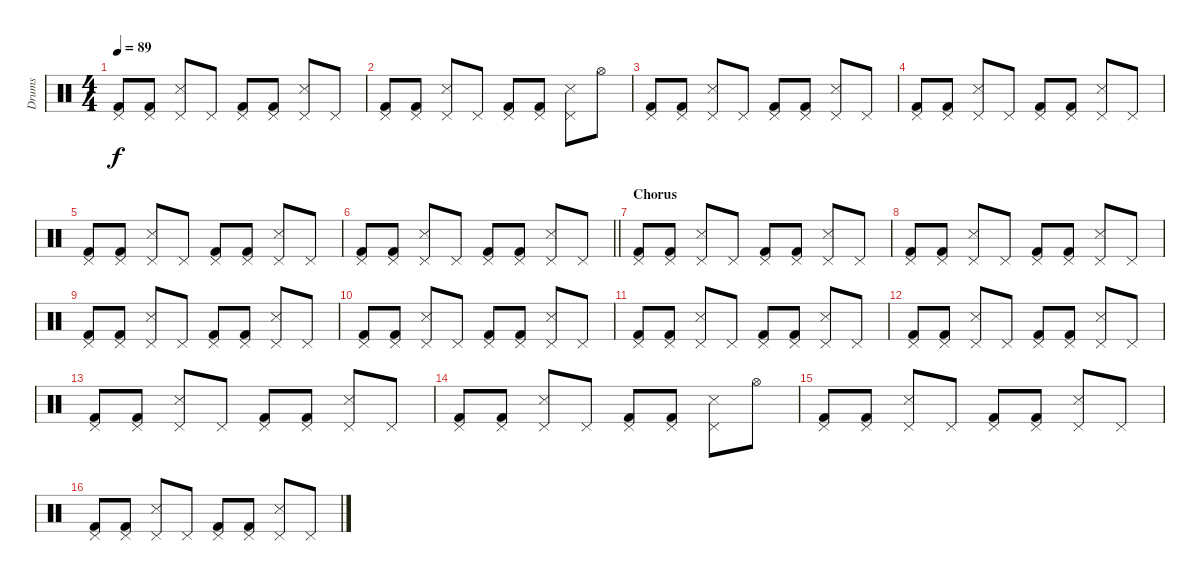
\track ("Drums" "Drums") {instrument percussion}
\staff {score}
\articulation defaults
\ts (4 4)
\tempo 89
\clef neutral
\ks c
("Pedal Hi-Hat (hit)" "Kick (hit) 2").8{dy f} ("Pedal Hi-Hat (hit)" "Kick (hit) 2").8 ("Pedal Hi-Hat (hit)" "Snare (side stick) 3").8 "Pedal Hi-Hat (hit)".8 ("Pedal Hi-Hat (hit)" "Kick (hit) 2").8 ("Pedal Hi-Hat (hit)" "Kick (hit) 2").8 ("Pedal Hi-Hat (hit)" "Snare (side stick) 3").8 "Pedal Hi-Hat (hit)".8 |
("Pedal Hi-Hat (hit)" "Kick (hit) 2").8 ("Pedal Hi-Hat (hit)" "Kick (hit) 2").8 ("Pedal Hi-Hat (hit)" "Snare (side stick) 3").8 "Pedal Hi-Hat (hit)".8 ("Pedal Hi-Hat (hit)" "Kick (hit) 2").8 ("Pedal Hi-Hat (hit)" "Kick (hit) 2").8 ("Pedal Hi-Hat (hit)" "Snare (side stick) 3").8 "Hi-Hat (open)".8 |
("Pedal Hi-Hat (hit)" "Kick (hit) 2").8 ("Pedal Hi-Hat (hit)" "Kick (hit) 2").8 ("Pedal Hi-Hat (hit)" "Snare (side stick) 3").8 "Pedal Hi-Hat (hit)".8 ("Pedal Hi-Hat (hit)" "Kick (hit) 2").8 ("Pedal Hi-Hat (hit)" "Kick (hit) 2").8 ("Pedal Hi-Hat (hit)" "Snare (side stick) 3").8 "Pedal Hi-Hat (hit)".8 |
("Pedal Hi-Hat (hit)" "Kick (hit) 2").8 ("Pedal Hi-Hat (hit)" "Kick (hit) 2").8 ("Pedal Hi-Hat (hit)" "Snare (side stick) 3").8 "Pedal Hi-Hat (hit)".8 ("Pedal Hi-Hat (hit)" "Kick (hit) 2").8 ("Pedal Hi-Hat (hit)" "Kick (hit) 2").8 ("Pedal Hi-Hat (hit)" "Snare (side stick) 3").8 "Pedal Hi-Hat (hit)".8 |
("Pedal Hi-Hat (hit)" "Kick (hit) 2").8 ("Pedal Hi-Hat (hit)" "Kick (hit) 2").8 ("Pedal Hi-Hat (hit)" "Snare (side stick) 3").8 "Pedal Hi-Hat (hit)".8 ("Pedal Hi-Hat (hit)" "Kick (hit) 2").8 ("Pedal Hi-Hat (hit)" "Kick (hit) 2").8 ("Pedal Hi-Hat (hit)" "Snare (side stick) 3").8 "Pedal Hi-Hat (hit)".8 |
\barLineRight lightlight
("Pedal Hi-Hat (hit)" "Kick (hit) 2").8 ("Pedal Hi-Hat (hit)" "Kick (hit) 2").8 ("Pedal Hi-Hat (hit)" "Snare (side stick) 3").8 "Pedal Hi-Hat (hit)".8 ("Pedal Hi-Hat (hit)" "Kick (hit) 2").8 ("Pedal Hi-Hat (hit)" "Kick (hit) 2").8 ("Pedal Hi-Hat (hit)" "Snare (side stick) 3").8 "Pedal Hi-Hat (hit)".8 |
\section ("" "Chorus")
("Pedal Hi-Hat (hit)" "Kick (hit) 2").8 ("Pedal Hi-Hat (hit)" "Kick (hit) 2").8 ("Pedal Hi-Hat (hit)" "Snare (side stick) 3").8 "Pedal Hi-Hat (hit)".8 ("Pedal Hi-Hat (hit)" "Kick (hit) 2").8 ("Pedal Hi-Hat (hit)" "Kick (hit) 2").8 ("Pedal Hi-Hat (hit)" "Snare (side stick) 3").8 "Pedal Hi-Hat (hit)".8 |
("Pedal Hi-Hat (hit)" "Kick (hit) 2").8 ("Pedal Hi-Hat (hit)" "Kick (hit) 2").8 ("Pedal Hi-Hat (hit)" "Snare (side stick) 3").8 "Pedal Hi-Hat (hit)".8 ("Pedal Hi-Hat (hit)" "Kick (hit) 2").8 ("Pedal Hi-Hat (hit)" "Kick (hit) 2").8 ("Pedal Hi-Hat (hit)" "Snare (side stick) 3").8 "Pedal Hi-Hat (hit)".8 |
("Pedal Hi-Hat (hit)" "Kick (hit) 2").8 ("Pedal Hi-Hat (hit)" "Kick (hit) 2").8 ("Pedal Hi-Hat (hit)" "Snare (side stick) 3").8 "Pedal Hi-Hat (hit)".8 ("Pedal Hi-Hat (hit)" "Kick (hit) 2").8 ("Pedal Hi-Hat (hit)" "Kick (hit) 2").8 ("Pedal Hi-Hat (hit)" "Snare (side stick) 3").8 "Pedal Hi-Hat (hit)".8 |
("Pedal Hi-Hat (hit)" "Kick (hit) 2").8 ("Pedal Hi-Hat (hit)" "Kick (hit) 2").8 ("Pedal Hi-Hat (hit)" "Snare (side stick) 3").8 "Pedal Hi-Hat (hit)".8 ("Pedal Hi-Hat (hit)" "Kick (hit) 2").8 ("Pedal Hi-Hat (hit)" "Kick (hit) 2").8 ("Pedal Hi-Hat (hit)" "Snare (side stick) 3").8 "Pedal Hi-Hat (hit)".8 |
("Pedal Hi-Hat (hit)" "Kick (hit) 2").8 ("Pedal Hi-Hat (hit)" "Kick (hit) 2").8 ("Pedal Hi-Hat (hit)" "Snare (side stick) 3").8 "Pedal Hi-Hat (hit)".8 ("Pedal Hi-Hat (hit)" "Kick (hit) 2").8 ("Pedal Hi-Hat (hit)" "Kick (hit) 2").8 ("Pedal Hi-Hat (hit)" "Snare (side stick) 3").8 "Pedal Hi-Hat (hit)".8 |
("Pedal Hi-Hat (hit)" "Kick (hit) 2").8 ("Pedal Hi-Hat (hit)" "Kick (hit) 2").8 ("Pedal Hi-Hat (hit)" "Snare (side stick) 3").8 "Pedal Hi-Hat (hit)".8 ("Pedal Hi-Hat (hit)" "Kick (hit) 2").8 ("Pedal Hi-Hat (hit)" "Kick (hit) 2").8 ("Pedal Hi-Hat (hit)" "Snare (side stick) 3").8 "Pedal Hi-Hat (hit)".8 |
("Pedal Hi-Hat (hit)" "Kick (hit) 2").8 ("Pedal Hi-Hat (hit)" "Kick (hit) 2").8 ("Pedal Hi-Hat (hit)" "Snare (side stick) 3").8 "Pedal Hi-Hat (hit)".8 ("Pedal Hi-Hat (hit)" "Kick (hit) 2").8 ("Pedal Hi-Hat (hit)" "Kick (hit) 2").8 ("Pedal Hi-Hat (hit)" "Snare (side stick) 3").8 "Pedal Hi-Hat (hit)".8 |
("Pedal Hi-Hat (hit)" "Kick (hit) 2").8 ("Pedal Hi-Hat (hit)" "Kick (hit) 2").8 ("Pedal Hi-Hat (hit)" "Snare (side stick) 3").8 "Pedal Hi-Hat (hit)".8 ("Pedal Hi-Hat (hit)" "Kick (hit) 2").8 ("Pedal Hi-Hat (hit)" "Kick (hit) 2").8 ("Pedal Hi-Hat (hit)" "Snare (side stick) 3").8 "Hi-Hat (open)".8 |
("Pedal Hi-Hat (hit)" "Kick (hit) 2").8 ("Pedal Hi-Hat (hit)" "Kick (hit) 2").8 ("Pedal Hi-Hat (hit)" "Snare (side stick) 3").8 "Pedal Hi-Hat (hit)".8 ("Pedal Hi-Hat (hit)" "Kick (hit) 2").8 ("Pedal Hi-Hat (hit)" "Kick (hit) 2").8 ("Pedal Hi-Hat (hit)" "Snare (side stick) 3").8 "Pedal Hi-Hat (hit)".8 |
("Pedal Hi-Hat (hit)" "Kick (hit) 2").8 ("Pedal Hi-Hat (hit)" "Kick (hit) 2").8 ("Pedal Hi-Hat (hit)" "Snare (side stick) 3").8 "Pedal Hi-Hat (hit)".8 ("Pedal Hi-Hat (hit)" "Kick (hit) 2").8 ("Pedal Hi-Hat (hit)" "Kick (hit) 2").8 ("Pedal Hi-Hat (hit)" "Snare (side stick) 3").8 "Pedal Hi-Hat (hit)".8
